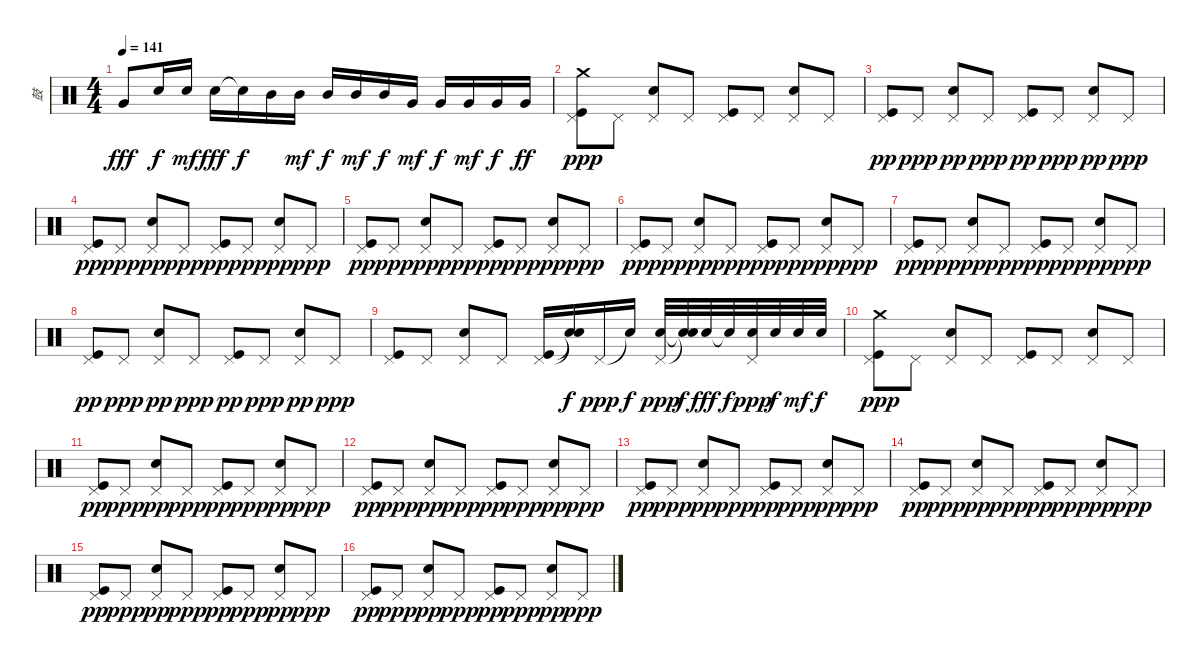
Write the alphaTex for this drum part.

\track ("鼓" "鼓") {instrument percussion}
\staff {score}
\articulation defaults
\ts (4 4)
\tempo 141
\clef neutral
\ks c "Very Low Tom (hit)".8{dy fff} "Snare (hit) 2".16{dy f} "Snare (hit) 2".16{dy mf} "Snare (hit) 2".16{dy fff} "Snare (hit)"{t}.16{dy f} "Mid Tom (hit)".16 "Mid Tom (hit)".16{dy mf} "Mid Tom (hit)".16{dy f} "Mid Tom (hit)".16{dy mf} "Mid Tom (hit)".16{dy f} "Very Low Tom (hit)".16{dy mf} "Very Low Tom (hit)".16{dy f} "Very Low Tom (hit)".16{dy mf} "Very Low Tom (hit)".16{dy f} "Very Low Tom (hit)".16{dy ff}
|
("Crash medium (hit)" "Kick (hit)" "Pedal Hi-Hat (hit)").8{dy ppp} "Pedal Hi-Hat (hit)".8 ("Snare (hit) 2" "Pedal Hi-Hat (hit)").8 "Pedal Hi-Hat (hit)".8 ("Kick (hit)" "Pedal Hi-Hat (hit)").8 "Pedal Hi-Hat (hit)".8 ("Snare (hit) 2" "Pedal Hi-Hat (hit)").8 "Pedal Hi-Hat (hit)".8 |
("Kick (hit)" "Pedal Hi-Hat (hit)").8{dy pp} "Pedal Hi-Hat (hit)".8{dy ppp} ("Snare (hit) 2" "Pedal Hi-Hat (hit)").8{dy pp} "Pedal Hi-Hat (hit)".8{dy ppp} ("Kick (hit)" "Pedal Hi-Hat (hit)").8{dy pp} "Pedal Hi-Hat (hit)".8{dy ppp} ("Snare (hit) 2" "Pedal Hi-Hat (hit)").8{dy pp} "Pedal Hi-Hat (hit)".8{dy ppp} |
("Kick (hit)" "Pedal Hi-Hat (hit)").8{dy pp} "Pedal Hi-Hat (hit)".8{dy ppp} ("Snare (hit) 2" "Pedal Hi-Hat (hit)").8{dy pp} "Pedal Hi-Hat (hit)".8{dy ppp} ("Kick (hit)" "Pedal Hi-Hat (hit)").8{dy pp} "Pedal Hi-Hat (hit)".8{dy ppp} ("Snare (hit) 2" "Pedal Hi-Hat (hit)").8{dy pp} "Pedal Hi-Hat (hit)".8{dy ppp} |
("Kick (hit)" "Pedal Hi-Hat (hit)").8{dy pp} "Pedal Hi-Hat (hit)".8{dy ppp} ("Snare (hit) 2" "Pedal Hi-Hat (hit)").8{dy pp} "Pedal Hi-Hat (hit)".8{dy ppp} ("Kick (hit)" "Pedal Hi-Hat (hit)").8{dy pp} "Pedal Hi-Hat (hit)".8{dy ppp} ("Snare (hit) 2" "Pedal Hi-Hat (hit)").8{dy pp} "Pedal Hi-Hat (hit)".8{dy ppp} |
("Kick (hit)" "Pedal Hi-Hat (hit)").8{dy pp} "Pedal Hi-Hat (hit)".8{dy ppp} ("Snare (hit) 2" "Pedal Hi-Hat (hit)").8{dy pp} "Pedal Hi-Hat (hit)".8{dy ppp} ("Kick (hit)" "Pedal Hi-Hat (hit)").8{dy pp} "Pedal Hi-Hat (hit)".8{dy ppp} ("Snare (hit) 2" "Pedal Hi-Hat (hit)").8{dy pp} "Pedal Hi-Hat (hit)".8{dy ppp} |
("Kick (hit)" "Pedal Hi-Hat (hit)").8{dy pp} "Pedal Hi-Hat (hit)".8{dy ppp} ("Snare (hit) 2" "Pedal Hi-Hat (hit)").8{dy pp} "Pedal Hi-Hat (hit)".8{dy ppp} ("Kick (hit)" "Pedal Hi-Hat (hit)").8{dy pp} "Pedal Hi-Hat (hit)".8{dy ppp} ("Snare (hit) 2" "Pedal Hi-Hat (hit)").8{dy pp} "Pedal Hi-Hat (hit)".8{dy ppp} |
("Kick (hit)" "Pedal Hi-Hat (hit)").8{dy pp} "Pedal Hi-Hat (hit)".8{dy ppp} ("Snare (hit) 2" "Pedal Hi-Hat (hit)").8{dy pp} "Pedal Hi-Hat (hit)".8{dy ppp} ("Kick (hit)" "Pedal Hi-Hat (hit)").8{dy pp} "Pedal Hi-Hat (hit)".8{dy ppp} ("Snare (hit) 2" "Pedal Hi-Hat (hit)").8{dy pp} "Pedal Hi-Hat (hit)".8{dy ppp} |
("Kick (hit)" "Pedal Hi-Hat (hit)").8 "Pedal Hi-Hat (hit)".8 ("Snare (hit) 2" "Pedal Hi-Hat (hit)").8 "Pedal Hi-Hat (hit)".8 ("Kick (hit)" "Pedal Hi-Hat (hit)").16 ("Snare (hit)"{t} "Snare (hit)"{t}).16{dy f} "Pedal Hi-Hat (hit)".16{dy ppp} "Snare (hit)"{t}.16{dy f} ("Snare (hit) 2" "Pedal Hi-Hat (hit)").32{dy ppp} ("Snare (hit)"{t} "Snare (hit)"{t}).32{dy f} "Snare (hit) 2".32{dy fff} "Snare (hit)"{t}.32{dy f} ("Snare (hit) 2" "Pedal Hi-Hat (hit)").32{dy ppp} "Snare (hit) 2".32{dy f} "Snare (hit) 2".32{dy mf} "Snare (hit) 2".32{dy f} |
("Crash medium (hit)" "Kick (hit)" "Pedal Hi-Hat (hit)").8{dy ppp} "Pedal Hi-Hat (hit)".8 ("Snare (hit) 2" "Pedal Hi-Hat (hit)").8 "Pedal Hi-Hat (hit)".8 ("Kick (hit)" "Pedal Hi-Hat (hit)").8 "Pedal Hi-Hat (hit)".8 ("Snare (hit) 2" "Pedal Hi-Hat (hit)").8 "Pedal Hi-Hat (hit)".8 |
("Kick (hit)" "Pedal Hi-Hat (hit)").8{dy pp} "Pedal Hi-Hat (hit)".8{dy ppp} ("Snare (hit) 2" "Pedal Hi-Hat (hit)").8{dy pp} "Pedal Hi-Hat (hit)".8{dy ppp} ("Kick (hit)" "Pedal Hi-Hat (hit)").8{dy pp} "Pedal Hi-Hat (hit)".8{dy ppp} ("Snare (hit) 2" "Pedal Hi-Hat (hit)").8{dy pp} "Pedal Hi-Hat (hit)".8{dy ppp} |
("Kick (hit)" "Pedal Hi-Hat (hit)").8{dy pp} "Pedal Hi-Hat (hit)".8{dy ppp} ("Snare (hit) 2" "Pedal Hi-Hat (hit)").8{dy pp} "Pedal Hi-Hat (hit)".8{dy ppp} ("Kick (hit)" "Pedal Hi-Hat (hit)").8{dy pp} "Pedal Hi-Hat (hit)".8{dy ppp} ("Snare (hit) 2" "Pedal Hi-Hat (hit)").8{dy pp} "Pedal Hi-Hat (hit)".8{dy ppp} |
("Kick (hit)" "Pedal Hi-Hat (hit)").8{dy pp} "Pedal Hi-Hat (hit)".8{dy ppp} ("Snare (hit) 2" "Pedal Hi-Hat (hit)").8{dy pp} "Pedal Hi-Hat (hit)".8{dy ppp} ("Kick (hit)" "Pedal Hi-Hat (hit)").8{dy pp} "Pedal Hi-Hat (hit)".8{dy ppp} ("Snare (hit) 2" "Pedal Hi-Hat (hit)").8{dy pp} "Pedal Hi-Hat (hit)".8{dy ppp} |
("Kick (hit)" "Pedal Hi-Hat (hit)").8{dy pp} "Pedal Hi-Hat (hit)".8{dy ppp} ("Snare (hit) 2" "Pedal Hi-Hat (hit)").8{dy pp} "Pedal Hi-Hat (hit)".8{dy ppp} ("Kick (hit)" "Pedal Hi-Hat (hit)").8{dy pp} "Pedal Hi-Hat (hit)".8{dy ppp} ("Snare (hit) 2" "Pedal Hi-Hat (hit)").8{dy pp} "Pedal Hi-Hat (hit)".8{dy ppp} |
("Kick (hit)" "Pedal Hi-Hat (hit)").8{dy pp} "Pedal Hi-Hat (hit)".8{dy ppp} ("Snare (hit) 2" "Pedal Hi-Hat (hit)").8{dy pp} "Pedal Hi-Hat (hit)".8{dy ppp} ("Kick (hit)" "Pedal Hi-Hat (hit)").8{dy pp} "Pedal Hi-Hat (hit)".8{dy ppp} ("Snare (hit) 2" "Pedal Hi-Hat (hit)").8{dy pp} "Pedal Hi-Hat (hit)".8{dy ppp} |
("Kick (hit)" "Pedal Hi-Hat (hit)").8{dy pp} "Pedal Hi-Hat (hit)".8{dy ppp} ("Snare (hit) 2" "Pedal Hi-Hat (hit)").8{dy pp} "Pedal Hi-Hat (hit)".8{dy ppp} ("Kick (hit)" "Pedal Hi-Hat (hit)").8{dy pp} "Pedal Hi-Hat (hit)".8{dy ppp} ("Snare (hit) 2" "Pedal Hi-Hat (hit)").8{dy pp} "Pedal Hi-Hat (hit)".8{dy ppp}
